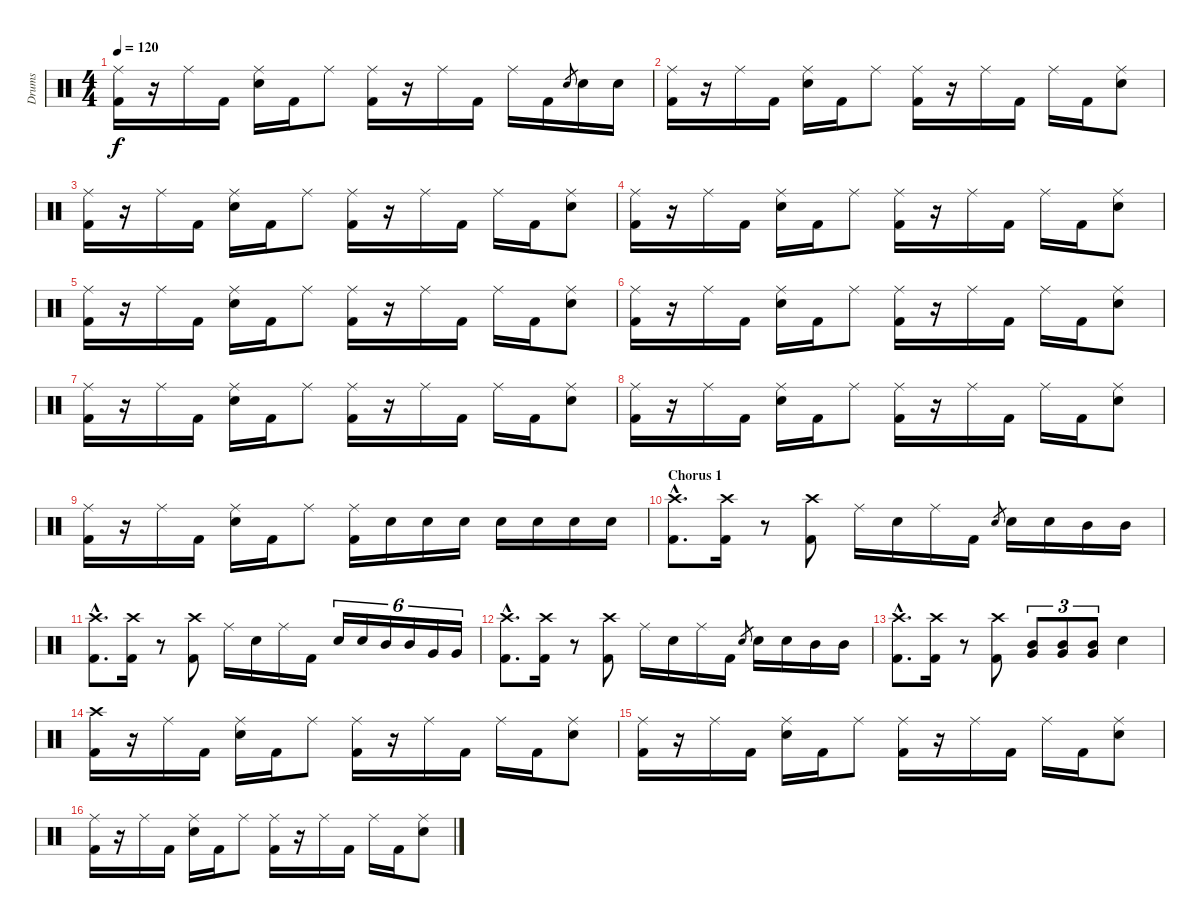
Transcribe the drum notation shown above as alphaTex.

\track ("Drums" "Drums") {instrument percussion}
\staff {score}
\articulation defaults
\ts (4 4)
\tempo 120
\clef neutral
\ks c
("Ride (middle)" "Kick (hit) 2").16{dy f} r.16 "Ride (middle)".16 "Kick (hit) 2".16 ("Ride (middle)" "Electric Snare (hit)").16 "Kick (hit) 2".16 "Ride (middle)".8 ("Ride (middle)" "Kick (hit) 2").16 r.16 "Ride (middle)".16 "Kick (hit) 2".16 "Ride (middle)".16 "Kick (hit) 2".16 "Electric Snare (hit)".8{gr} "Electric Snare (hit)".16 "Electric Snare (hit)".16 |
("Ride (middle)" "Kick (hit) 2").16 r.16 "Ride (middle)".16 "Kick (hit) 2".16 ("Ride (middle)" "Electric Snare (hit)").16 "Kick (hit) 2".16 "Ride (middle)".8 ("Ride (middle)" "Kick (hit) 2").16 r.16 "Ride (middle)".16 "Kick (hit) 2".16 "Ride (middle)".16 "Kick (hit) 2".16 ("Ride (middle)" "Electric Snare (hit)").8 |
("Ride (middle)" "Kick (hit) 2").16 r.16 "Ride (middle)".16 "Kick (hit) 2".16 ("Ride (middle)" "Electric Snare (hit)").16 "Kick (hit) 2".16 "Ride (middle)".8 ("Ride (middle)" "Kick (hit) 2").16 r.16 "Ride (middle)".16 "Kick (hit) 2".16 "Ride (middle)".16 "Kick (hit) 2".16 ("Ride (middle)" "Electric Snare (hit)").8 |
("Ride (middle)" "Kick (hit) 2").16 r.16 "Ride (middle)".16 "Kick (hit) 2".16 ("Ride (middle)" "Electric Snare (hit)").16 "Kick (hit) 2".16 "Ride (middle)".8 ("Ride (middle)" "Kick (hit) 2").16 r.16 "Ride (middle)".16 "Kick (hit) 2".16 "Ride (middle)".16 "Kick (hit) 2".16 ("Ride (middle)" "Electric Snare (hit)").8 |
("Ride (middle)" "Kick (hit) 2").16 r.16 "Ride (middle)".16 "Kick (hit) 2".16 ("Ride (middle)" "Electric Snare (hit)").16 "Kick (hit) 2".16 "Ride (middle)".8 ("Ride (middle)" "Kick (hit) 2").16 r.16 "Ride (middle)".16 "Kick (hit) 2".16 "Ride (middle)".16 "Kick (hit) 2".16 ("Ride (middle)" "Electric Snare (hit)").8 |
("Ride (middle)" "Kick (hit) 2").16 r.16 "Ride (middle)".16 "Kick (hit) 2".16 ("Ride (middle)" "Electric Snare (hit)").16 "Kick (hit) 2".16 "Ride (middle)".8 ("Ride (middle)" "Kick (hit) 2").16 r.16 "Ride (middle)".16 "Kick (hit) 2".16 "Ride (middle)".16 "Kick (hit) 2".16 ("Ride (middle)" "Electric Snare (hit)").8 |
("Ride (middle)" "Kick (hit) 2").16 r.16 "Ride (middle)".16 "Kick (hit) 2".16 ("Ride (middle)" "Electric Snare (hit)").16 "Kick (hit) 2".16 "Ride (middle)".8 ("Ride (middle)" "Kick (hit) 2").16 r.16 "Ride (middle)".16 "Kick (hit) 2".16 "Ride (middle)".16 "Kick (hit) 2".16 ("Ride (middle)" "Electric Snare (hit)").8 |
("Ride (middle)" "Kick (hit) 2").16 r.16 "Ride (middle)".16 "Kick (hit) 2".16 ("Ride (middle)" "Electric Snare (hit)").16 "Kick (hit) 2".16 "Ride (middle)".8 ("Ride (middle)" "Kick (hit) 2").16 r.16 "Ride (middle)".16 "Kick (hit) 2".16 "Ride (middle)".16 "Kick (hit) 2".16 ("Ride (middle)" "Electric Snare (hit)").8 |
("Ride (middle)" "Kick (hit) 2").16 r.16 "Ride (middle)".16 "Kick (hit) 2".16 ("Ride (middle)" "Electric Snare (hit)").16 "Kick (hit) 2".16 "Ride (middle)".8 ("Ride (middle)" "Kick (hit) 2").16 "Electric Snare (hit)".16 "Electric Snare (hit)".16 "Electric Snare (hit)".16 "Electric Snare (hit)".16 "Electric Snare (hit)".16 "Electric Snare (hit)".16 "Electric Snare (hit)".16 |
\section ("" "Chorus 1")
("Crash high (hit)"{hac} "Kick (hit) 2"{hac}).8{d} ("Crash high (hit)" "Kick (hit) 2").16 r.8 ("Crash high (hit)" "Kick (hit) 2").8 "Ride (middle)".16 "Electric Snare (hit)".16 "Ride (middle)".16 "Kick (hit) 2".16 "Electric Snare (hit)".8{gr} "Electric Snare (hit)".16 "Electric Snare (hit)".16 "Mid Tom (hit)".16 "Mid Tom (hit)".16 |
("Crash high (hit)"{hac} "Kick (hit) 2"{hac}).8{d} ("Crash high (hit)" "Kick (hit) 2").16 r.8 ("Crash high (hit)" "Kick (hit) 2").8 "Ride (middle)".16 "Electric Snare (hit)".16 "Ride (middle)".16 "Kick (hit) 2".16 "Electric Snare (hit)".16{tu (6 4)} "Electric Snare (hit)".16{tu (6 4)} "Mid Tom (hit)".16{tu (6 4)} "Mid Tom (hit)".16{tu (6 4)} "Very Low Tom (hit)".16{tu (6 4)} "Very Low Tom (hit)".16{tu (6 4)} |
("Crash high (hit)"{hac} "Kick (hit) 2"{hac}).8{d} ("Crash high (hit)" "Kick (hit) 2").16 r.8 ("Crash high (hit)" "Kick (hit) 2").8 "Ride (middle)".16 "Electric Snare (hit)".16 "Ride (middle)".16 "Kick (hit) 2".16 "Electric Snare (hit)".8{gr} "Electric Snare (hit)".16 "Electric Snare (hit)".16 "Mid Tom (hit)".16 "Mid Tom (hit)".16 |
("Crash high (hit)"{hac} "Kick (hit) 2"{hac}).8{d} ("Crash high (hit)" "Kick (hit) 2").16 r.8 ("Crash high (hit)" "Kick (hit) 2").8 ("Mid Tom (hit)" "Very Low Tom (hit)").8{tu (3 2)} ("Mid Tom (hit)" "Very Low Tom (hit)").8{tu (3 2)} ("Mid Tom (hit)" "Very Low Tom (hit)").8{tu (3 2)} "Electric Snare (hit)".4 |
("Crash high (hit)" "Kick (hit) 2").16 r.16 "Ride (middle)".16 "Kick (hit) 2".16 ("Ride (middle)" "Electric Snare (hit)").16 "Kick (hit) 2".16 "Ride (middle)".8 ("Ride (middle)" "Kick (hit) 2").16 r.16 "Ride (middle)".16 "Kick (hit) 2".16 "Ride (middle)".16 "Kick (hit) 2".16 ("Ride (middle)" "Electric Snare (hit)").8 |
("Ride (middle)" "Kick (hit) 2").16 r.16 "Ride (middle)".16 "Kick (hit) 2".16 ("Ride (middle)" "Electric Snare (hit)").16 "Kick (hit) 2".16 "Ride (middle)".8 ("Ride (middle)" "Kick (hit) 2").16 r.16 "Ride (middle)".16 "Kick (hit) 2".16 "Ride (middle)".16 "Kick (hit) 2".16 ("Ride (middle)" "Electric Snare (hit)").8 |
("Ride (middle)" "Kick (hit) 2").16 r.16 "Ride (middle)".16 "Kick (hit) 2".16 ("Ride (middle)" "Electric Snare (hit)").16 "Kick (hit) 2".16 "Ride (middle)".8 ("Ride (middle)" "Kick (hit) 2").16 r.16 "Ride (middle)".16 "Kick (hit) 2".16 "Ride (middle)".16 "Kick (hit) 2".16 ("Ride (middle)" "Electric Snare (hit)").8
